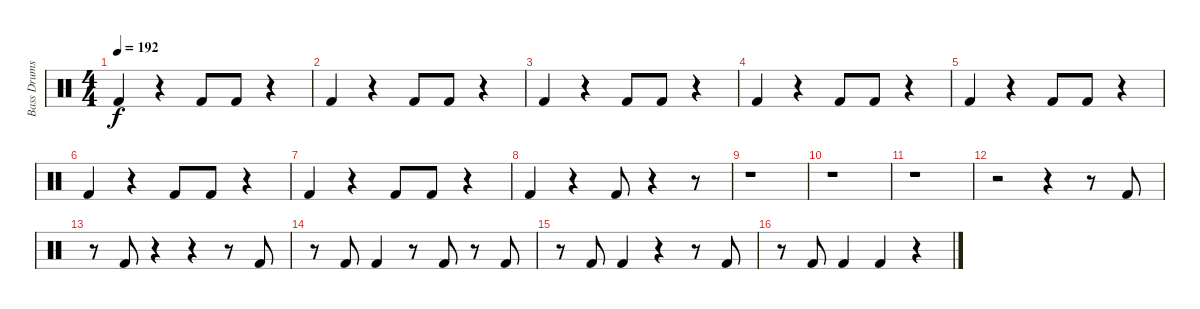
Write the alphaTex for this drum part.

\track ("Bass Drums" "Bass Drums") {instrument percussion}
\staff {score}
\articulation defaults
\ts (4 4)
\tempo 192
\clef neutral
\ks c "Kick (hit) 2".4{dy f}
r.4 "Kick (hit) 2".8 "Kick (hit) 2".8 r.4 |
"Kick (hit) 2".4 r.4 "Kick (hit) 2".8 "Kick (hit) 2".8 r.4 |
"Kick (hit) 2".4 r.4 "Kick (hit) 2".8 "Kick (hit) 2".8 r.4 |
"Kick (hit) 2".4 r.4 "Kick (hit) 2".8 "Kick (hit) 2".8 r.4 |
"Kick (hit) 2".4 r.4 "Kick (hit) 2".8 "Kick (hit) 2".8 r.4 |
"Kick (hit) 2".4 r.4 "Kick (hit) 2".8 "Kick (hit) 2".8 r.4 |
"Kick (hit) 2".4 r.4 "Kick (hit) 2".8 "Kick (hit) 2".8 r.4 |
"Kick (hit) 2".4 r.4 "Kick (hit) 2".8 r.4 r.8 |
r.1 |
r.1 |
r.1 |
r.2 r.4 r.8 "Kick (hit) 2".8 |
r.8 "Kick (hit) 2".8 r.4 r.4 r.8 "Kick (hit) 2".8 |
r.8 "Kick (hit) 2".8 "Kick (hit) 2".4 r.8 "Kick (hit) 2".8 r.8 "Kick (hit) 2".8 |
r.8 "Kick (hit) 2".8 "Kick (hit) 2".4 r.4 r.8 "Kick (hit) 2".8 |
r.8 "Kick (hit) 2".8 "Kick (hit) 2".4 "Kick (hit) 2".4 r.4
